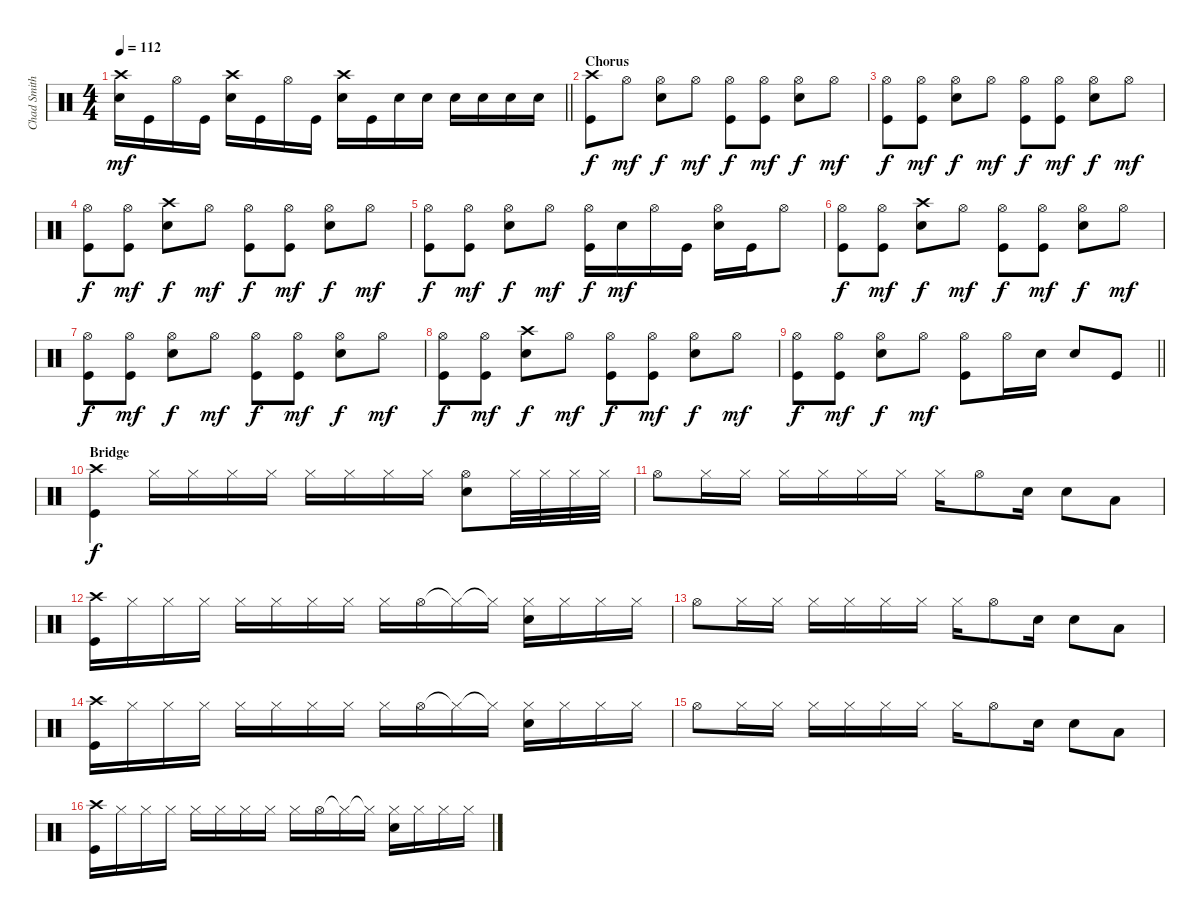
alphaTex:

\track ("Chad Smith" "Chad Smith") {instrument percussion}
\staff {score}
\articulation defaults
\ts (4 4)
\tempo 112
\clef neutral
\barLineRight lightlight
\ks c
("Crash high (hit)" "Snare (hit) 2").16{dy mf} "Kick (hit)".16 "Hi-Hat (open)".16 "Kick (hit)".16 ("Crash high (hit)" "Snare (hit) 2").16 "Kick (hit)".16 "Hi-Hat (open)".16 "Kick (hit)".16 ("Crash high (hit)" "Snare (hit) 2").16 "Kick (hit)".16 "Snare (hit) 2".16 "Snare (hit) 2".16 "Snare (hit) 2".16 "Snare (hit) 2".16 "Snare (hit) 2".16 "Snare (hit) 2".16 |
\section ("" "Chorus")
("Crash high (hit)" "Kick (hit)").8{dy f} "Hi-Hat (open)".8{dy mf} ("Hi-Hat (open)" "Snare (hit) 2").8{dy f} "Hi-Hat (open)".8{dy mf} ("Kick (hit)" "Hi-Hat (open)").8{dy f} ("Kick (hit)" "Hi-Hat (open)").8{dy mf} ("Snare (hit) 2" "Hi-Hat (open)").8{dy f} "Hi-Hat (open)".8{dy mf} |
("Hi-Hat (open)" "Kick (hit)").8{dy f} ("Hi-Hat (open)" "Kick (hit)").8{dy mf} ("Hi-Hat (open)" "Snare (hit) 2").8{dy f} "Hi-Hat (open)".8{dy mf} ("Kick (hit)" "Hi-Hat (open)").8{dy f} ("Kick (hit)" "Hi-Hat (open)").8{dy mf} ("Snare (hit) 2" "Hi-Hat (open)").8{dy f} "Hi-Hat (open)".8{dy mf} |
("Hi-Hat (open)" "Kick (hit)").8{dy f} ("Hi-Hat (open)" "Kick (hit)").8{dy mf} ("Crash high (hit)" "Snare (hit) 2").8{dy f} "Hi-Hat (open)".8{dy mf} ("Kick (hit)" "Hi-Hat (open)").8{dy f} ("Kick (hit)" "Hi-Hat (open)").8{dy mf} ("Snare (hit) 2" "Hi-Hat (open)").8{dy f} "Hi-Hat (open)".8{dy mf} |
("Hi-Hat (open)" "Kick (hit)").8{dy f} ("Hi-Hat (open)" "Kick (hit)").8{dy mf} ("Hi-Hat (open)" "Snare (hit) 2").8{dy f} "Hi-Hat (open)".8{dy mf} ("Kick (hit)" "Hi-Hat (open)").16{dy f} "Snare (hit) 2".16{dy mf} "Hi-Hat (open)".16 "Kick (hit)".16 ("Hi-Hat (open)" "Snare (hit) 2").16 "Kick (hit)".16 "Hi-Hat (open)".8 |
("Hi-Hat (open)" "Kick (hit)").8{dy f} ("Hi-Hat (open)" "Kick (hit)").8{dy mf} ("Crash high (hit)" "Snare (hit) 2").8{dy f} "Hi-Hat (open)".8{dy mf} ("Kick (hit)" "Hi-Hat (open)").8{dy f} ("Kick (hit)" "Hi-Hat (open)").8{dy mf} ("Snare (hit) 2" "Hi-Hat (open)").8{dy f} "Hi-Hat (open)".8{dy mf} |
("Hi-Hat (open)" "Kick (hit)").8{dy f} ("Hi-Hat (open)" "Kick (hit)").8{dy mf} ("Hi-Hat (open)" "Snare (hit) 2").8{dy f} "Hi-Hat (open)".8{dy mf} ("Kick (hit)" "Hi-Hat (open)").8{dy f} ("Kick (hit)" "Hi-Hat (open)").8{dy mf} ("Snare (hit) 2" "Hi-Hat (open)").8{dy f} "Hi-Hat (open)".8{dy mf} |
("Hi-Hat (open)" "Kick (hit)").8{dy f} ("Hi-Hat (open)" "Kick (hit)").8{dy mf} ("Crash high (hit)" "Snare (hit) 2").8{dy f} "Hi-Hat (open)".8{dy mf} ("Kick (hit)" "Hi-Hat (open)").8{dy f} ("Kick (hit)" "Hi-Hat (open)").8{dy mf} ("Snare (hit) 2" "Hi-Hat (open)").8{dy f} "Hi-Hat (open)".8{dy mf} |
\barLineRight lightlight
("Hi-Hat (open)" "Kick (hit)").8{dy f} ("Hi-Hat (open)" "Kick (hit)").8{dy mf} ("Hi-Hat (open)" "Snare (hit) 2").8{dy f} "Hi-Hat (open)".8{dy mf} ("Hi-Hat (open)" "Kick (hit)").8 "Hi-Hat (open)".16 "Snare (hit) 2".16 "Snare (hit) 2".8 "Kick (hit)".8 |
\section ("" "Bridge")
("Crash high (hit)" "Kick (hit)").4{dy f} "Hi-Hat (closed)".16 "Hi-Hat (closed)".16 "Hi-Hat (closed)".16 "Hi-Hat (closed)".16 "Hi-Hat (closed)".16 "Hi-Hat (closed)".16 "Hi-Hat (closed)".16 "Hi-Hat (closed)".16 ("Snare (hit) 2" "Hi-Hat (open)").8 "Hi-Hat (closed)".32 "Hi-Hat (closed)".32 "Hi-Hat (closed)".32 "Hi-Hat (closed)".32 |
"Hi-Hat (open)".8 "Hi-Hat (closed)".16 "Hi-Hat (closed)".16 "Hi-Hat (closed)".16 "Hi-Hat (closed)".16 "Hi-Hat (closed)".16 "Hi-Hat (closed)".16 "Hi-Hat (closed)".16 "Hi-Hat (open)".8 "Snare (hit) 2".16 "Snare (hit) 2".8 "Low Tom (hit)".8 |
("Crash high (hit)" "Kick (hit)").16 "Hi-Hat (closed)".16 "Hi-Hat (closed)".16 "Hi-Hat (closed)".16 "Hi-Hat (closed)".16 "Hi-Hat (closed)".16 "Hi-Hat (closed)".16 "Hi-Hat (closed)".16 "Hi-Hat (closed)".16 "Hi-Hat (open)".16 "Hi-Hat (closed)"{t}.16 "Hi-Hat (closed)"{t}.16 ("Hi-Hat (closed)" "Snare (hit) 2").16 "Hi-Hat (closed)".16 "Hi-Hat (closed)".16 "Hi-Hat (closed)".16 |
"Hi-Hat (open)".8 "Hi-Hat (closed)".16 "Hi-Hat (closed)".16 "Hi-Hat (closed)".16 "Hi-Hat (closed)".16 "Hi-Hat (closed)".16 "Hi-Hat (closed)".16 "Hi-Hat (closed)".16 "Hi-Hat (open)".8 "Snare (hit) 2".16 "Snare (hit) 2".8 "Low Tom (hit)".8 |
("Crash high (hit)" "Kick (hit)").16 "Hi-Hat (closed)".16 "Hi-Hat (closed)".16 "Hi-Hat (closed)".16 "Hi-Hat (closed)".16 "Hi-Hat (closed)".16 "Hi-Hat (closed)".16 "Hi-Hat (closed)".16 "Hi-Hat (closed)".16 "Hi-Hat (open)".16 "Hi-Hat (closed)"{t}.16 "Hi-Hat (closed)"{t}.16 ("Hi-Hat (closed)" "Snare (hit) 2").16 "Hi-Hat (closed)".16 "Hi-Hat (closed)".16 "Hi-Hat (closed)".16 |
"Hi-Hat (open)".8 "Hi-Hat (closed)".16 "Hi-Hat (closed)".16 "Hi-Hat (closed)".16 "Hi-Hat (closed)".16 "Hi-Hat (closed)".16 "Hi-Hat (closed)".16 "Hi-Hat (closed)".16 "Hi-Hat (open)".8 "Snare (hit) 2".16 "Snare (hit) 2".8 "Low Tom (hit)".8 |
("Crash high (hit)" "Kick (hit)").16 "Hi-Hat (closed)".16 "Hi-Hat (closed)".16 "Hi-Hat (closed)".16 "Hi-Hat (closed)".16 "Hi-Hat (closed)".16 "Hi-Hat (closed)".16 "Hi-Hat (closed)".16 "Hi-Hat (closed)".16 "Hi-Hat (open)".16 "Hi-Hat (closed)"{t}.16 "Hi-Hat (closed)"{t}.16 ("Hi-Hat (closed)" "Snare (hit) 2").16 "Hi-Hat (closed)".16 "Hi-Hat (closed)".16 "Hi-Hat (closed)".16
